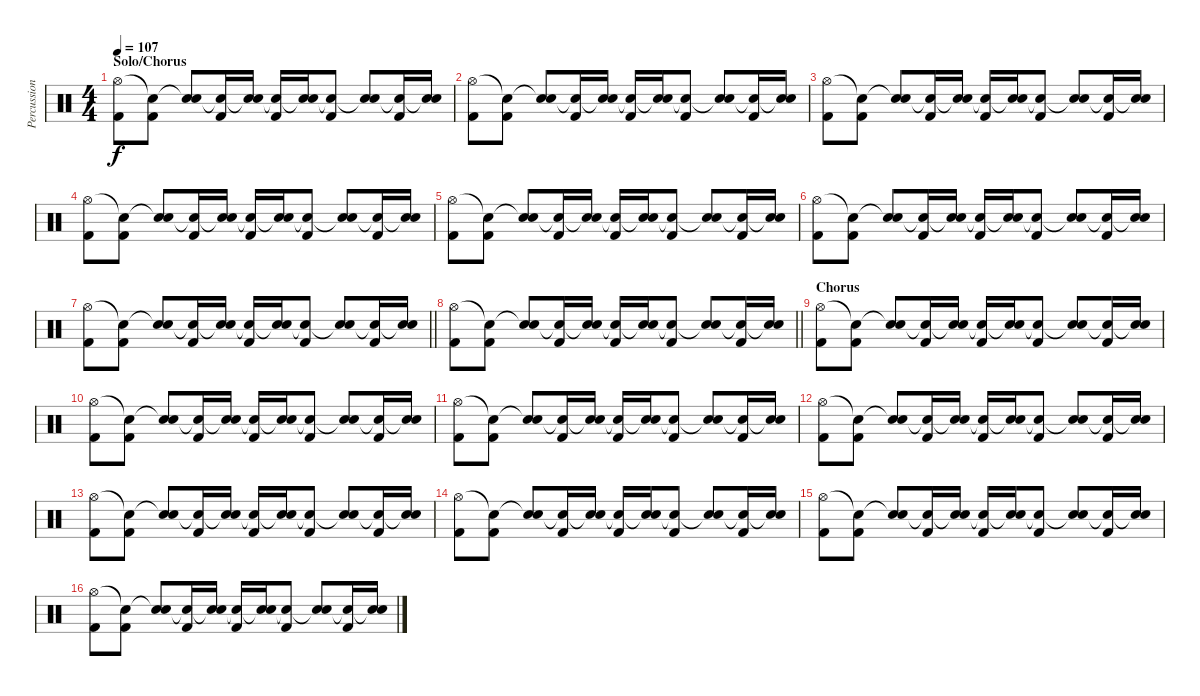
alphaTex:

\track ("Percussioni" "Percussion") {instrument percussion}
\staff {score}
\articulation defaults
\ts (4 4)
\section ("" "Solo/Chorus")
\tempo 107
\clef neutral
\ks c
("Hi-Hat (open)" "Kick (hit) 2").8{dy f} ("Snare (hit)"{t} "Kick (hit) 2").8 ("Snare (hit)"{t} "Electric Snare (hit)").8 ("Snare (hit)"{t} "Kick (hit) 2").16 ("Snare (hit)"{t} "Electric Snare (hit)").16 ("Snare (hit)"{t} "Kick (hit) 2").16 ("Snare (hit)"{t} "Electric Snare (hit)").16 ("Snare (hit)"{t} "Kick (hit) 2").8 ("Snare (hit)"{t} "Electric Snare (hit)").8 ("Snare (hit)"{t} "Kick (hit) 2").16 ("Snare (hit)"{t} "Electric Snare (hit)").16 |
("Hi-Hat (open)" "Kick (hit) 2").8 ("Snare (hit)"{t} "Kick (hit) 2").8 ("Snare (hit)"{t} "Electric Snare (hit)").8 ("Snare (hit)"{t} "Kick (hit) 2").16 ("Snare (hit)"{t} "Electric Snare (hit)").16 ("Snare (hit)"{t} "Kick (hit) 2").16 ("Snare (hit)"{t} "Electric Snare (hit)").16 ("Snare (hit)"{t} "Kick (hit) 2").8 ("Snare (hit)"{t} "Electric Snare (hit)").8 ("Snare (hit)"{t} "Kick (hit) 2").16 ("Snare (hit)"{t} "Electric Snare (hit)").16 |
("Hi-Hat (open)" "Kick (hit) 2").8 ("Snare (hit)"{t} "Kick (hit) 2").8 ("Snare (hit)"{t} "Electric Snare (hit)").8 ("Snare (hit)"{t} "Kick (hit) 2").16 ("Snare (hit)"{t} "Electric Snare (hit)").16 ("Snare (hit)"{t} "Kick (hit) 2").16 ("Snare (hit)"{t} "Electric Snare (hit)").16 ("Snare (hit)"{t} "Kick (hit) 2").8 ("Snare (hit)"{t} "Electric Snare (hit)").8 ("Snare (hit)"{t} "Kick (hit) 2").16 ("Snare (hit)"{t} "Electric Snare (hit)").16 |
("Hi-Hat (open)" "Kick (hit) 2").8 ("Snare (hit)"{t} "Kick (hit) 2").8 ("Snare (hit)"{t} "Electric Snare (hit)").8 ("Snare (hit)"{t} "Kick (hit) 2").16 ("Snare (hit)"{t} "Electric Snare (hit)").16 ("Snare (hit)"{t} "Kick (hit) 2").16 ("Snare (hit)"{t} "Electric Snare (hit)").16 ("Snare (hit)"{t} "Kick (hit) 2").8 ("Snare (hit)"{t} "Electric Snare (hit)").8 ("Snare (hit)"{t} "Kick (hit) 2").16 ("Snare (hit)"{t} "Electric Snare (hit)").16 |
("Hi-Hat (open)" "Kick (hit) 2").8 ("Snare (hit)"{t} "Kick (hit) 2").8 ("Snare (hit)"{t} "Electric Snare (hit)").8 ("Snare (hit)"{t} "Kick (hit) 2").16 ("Snare (hit)"{t} "Electric Snare (hit)").16 ("Snare (hit)"{t} "Kick (hit) 2").16 ("Snare (hit)"{t} "Electric Snare (hit)").16 ("Snare (hit)"{t} "Kick (hit) 2").8 ("Snare (hit)"{t} "Electric Snare (hit)").8 ("Snare (hit)"{t} "Kick (hit) 2").16 ("Snare (hit)"{t} "Electric Snare (hit)").16 |
("Hi-Hat (open)" "Kick (hit) 2").8 ("Snare (hit)"{t} "Kick (hit) 2").8 ("Snare (hit)"{t} "Electric Snare (hit)").8 ("Snare (hit)"{t} "Kick (hit) 2").16 ("Snare (hit)"{t} "Electric Snare (hit)").16 ("Snare (hit)"{t} "Kick (hit) 2").16 ("Snare (hit)"{t} "Electric Snare (hit)").16 ("Snare (hit)"{t} "Kick (hit) 2").8 ("Snare (hit)"{t} "Electric Snare (hit)").8 ("Snare (hit)"{t} "Kick (hit) 2").16 ("Snare (hit)"{t} "Electric Snare (hit)").16 |
\barLineRight lightlight
("Hi-Hat (open)" "Kick (hit) 2").8 ("Snare (hit)"{t} "Kick (hit) 2").8 ("Snare (hit)"{t} "Electric Snare (hit)").8 ("Snare (hit)"{t} "Kick (hit) 2").16 ("Snare (hit)"{t} "Electric Snare (hit)").16 ("Snare (hit)"{t} "Kick (hit) 2").16 ("Snare (hit)"{t} "Electric Snare (hit)").16 ("Snare (hit)"{t} "Kick (hit) 2").8 ("Snare (hit)"{t} "Electric Snare (hit)").8 ("Snare (hit)"{t} "Kick (hit) 2").16 ("Snare (hit)"{t} "Electric Snare (hit)").16 |
\section ("" "")
\barLineRight lightlight
("Hi-Hat (open)" "Kick (hit) 2").8 ("Snare (hit)"{t} "Kick (hit) 2").8 ("Snare (hit)"{t} "Electric Snare (hit)").8 ("Snare (hit)"{t} "Kick (hit) 2").16 ("Snare (hit)"{t} "Electric Snare (hit)").16 ("Snare (hit)"{t} "Kick (hit) 2").16 ("Snare (hit)"{t} "Electric Snare (hit)").16 ("Snare (hit)"{t} "Kick (hit) 2").8 ("Snare (hit)"{t} "Electric Snare (hit)").8 ("Snare (hit)"{t} "Kick (hit) 2").16 ("Snare (hit)"{t} "Electric Snare (hit)").16 |
\section ("" "Chorus")
("Hi-Hat (open)" "Kick (hit) 2").8 ("Snare (hit)"{t} "Kick (hit) 2").8 ("Snare (hit)"{t} "Electric Snare (hit)").8 ("Snare (hit)"{t} "Kick (hit) 2").16 ("Snare (hit)"{t} "Electric Snare (hit)").16 ("Snare (hit)"{t} "Kick (hit) 2").16 ("Snare (hit)"{t} "Electric Snare (hit)").16 ("Snare (hit)"{t} "Kick (hit) 2").8 ("Snare (hit)"{t} "Electric Snare (hit)").8 ("Snare (hit)"{t} "Kick (hit) 2").16 ("Snare (hit)"{t} "Electric Snare (hit)").16 |
("Hi-Hat (open)" "Kick (hit) 2").8 ("Snare (hit)"{t} "Kick (hit) 2").8 ("Snare (hit)"{t} "Electric Snare (hit)").8 ("Snare (hit)"{t} "Kick (hit) 2").16 ("Snare (hit)"{t} "Electric Snare (hit)").16 ("Snare (hit)"{t} "Kick (hit) 2").16 ("Snare (hit)"{t} "Electric Snare (hit)").16 ("Snare (hit)"{t} "Kick (hit) 2").8 ("Snare (hit)"{t} "Electric Snare (hit)").8 ("Snare (hit)"{t} "Kick (hit) 2").16 ("Snare (hit)"{t} "Electric Snare (hit)").16 |
("Hi-Hat (open)" "Kick (hit) 2").8 ("Snare (hit)"{t} "Kick (hit) 2").8 ("Snare (hit)"{t} "Electric Snare (hit)").8 ("Snare (hit)"{t} "Kick (hit) 2").16 ("Snare (hit)"{t} "Electric Snare (hit)").16 ("Snare (hit)"{t} "Kick (hit) 2").16 ("Snare (hit)"{t} "Electric Snare (hit)").16 ("Snare (hit)"{t} "Kick (hit) 2").8 ("Snare (hit)"{t} "Electric Snare (hit)").8 ("Snare (hit)"{t} "Kick (hit) 2").16 ("Snare (hit)"{t} "Electric Snare (hit)").16 |
("Hi-Hat (open)" "Kick (hit) 2").8 ("Snare (hit)"{t} "Kick (hit) 2").8 ("Snare (hit)"{t} "Electric Snare (hit)").8 ("Snare (hit)"{t} "Kick (hit) 2").16 ("Snare (hit)"{t} "Electric Snare (hit)").16 ("Snare (hit)"{t} "Kick (hit) 2").16 ("Snare (hit)"{t} "Electric Snare (hit)").16 ("Snare (hit)"{t} "Kick (hit) 2").8 ("Snare (hit)"{t} "Electric Snare (hit)").8 ("Snare (hit)"{t} "Kick (hit) 2").16 ("Snare (hit)"{t} "Electric Snare (hit)").16 |
("Hi-Hat (open)" "Kick (hit) 2").8 ("Snare (hit)"{t} "Kick (hit) 2").8 ("Snare (hit)"{t} "Electric Snare (hit)").8 ("Snare (hit)"{t} "Kick (hit) 2").16 ("Snare (hit)"{t} "Electric Snare (hit)").16 ("Snare (hit)"{t} "Kick (hit) 2").16 ("Snare (hit)"{t} "Electric Snare (hit)").16 ("Snare (hit)"{t} "Kick (hit) 2").8 ("Snare (hit)"{t} "Electric Snare (hit)").8 ("Snare (hit)"{t} "Kick (hit) 2").16 ("Snare (hit)"{t} "Electric Snare (hit)").16 |
("Hi-Hat (open)" "Kick (hit) 2").8 ("Snare (hit)"{t} "Kick (hit) 2").8 ("Snare (hit)"{t} "Electric Snare (hit)").8 ("Snare (hit)"{t} "Kick (hit) 2").16 ("Snare (hit)"{t} "Electric Snare (hit)").16 ("Snare (hit)"{t} "Kick (hit) 2").16 ("Snare (hit)"{t} "Electric Snare (hit)").16 ("Snare (hit)"{t} "Kick (hit) 2").8 ("Snare (hit)"{t} "Electric Snare (hit)").8 ("Snare (hit)"{t} "Kick (hit) 2").16 ("Snare (hit)"{t} "Electric Snare (hit)").16 |
("Hi-Hat (open)" "Kick (hit) 2").8 ("Snare (hit)"{t} "Kick (hit) 2").8 ("Snare (hit)"{t} "Electric Snare (hit)").8 ("Snare (hit)"{t} "Kick (hit) 2").16 ("Snare (hit)"{t} "Electric Snare (hit)").16 ("Snare (hit)"{t} "Kick (hit) 2").16 ("Snare (hit)"{t} "Electric Snare (hit)").16 ("Snare (hit)"{t} "Kick (hit) 2").8 ("Snare (hit)"{t} "Electric Snare (hit)").8 ("Snare (hit)"{t} "Kick (hit) 2").16 ("Snare (hit)"{t} "Electric Snare (hit)").16 |
("Hi-Hat (open)" "Kick (hit) 2").8 ("Snare (hit)"{t} "Kick (hit) 2").8 ("Snare (hit)"{t} "Electric Snare (hit)").8 ("Snare (hit)"{t} "Kick (hit) 2").16 ("Snare (hit)"{t} "Electric Snare (hit)").16 ("Snare (hit)"{t} "Kick (hit) 2").16 ("Snare (hit)"{t} "Electric Snare (hit)").16 ("Snare (hit)"{t} "Kick (hit) 2").8 ("Snare (hit)"{t} "Electric Snare (hit)").8 ("Snare (hit)"{t} "Kick (hit) 2").16 ("Snare (hit)"{t} "Electric Snare (hit)").16
